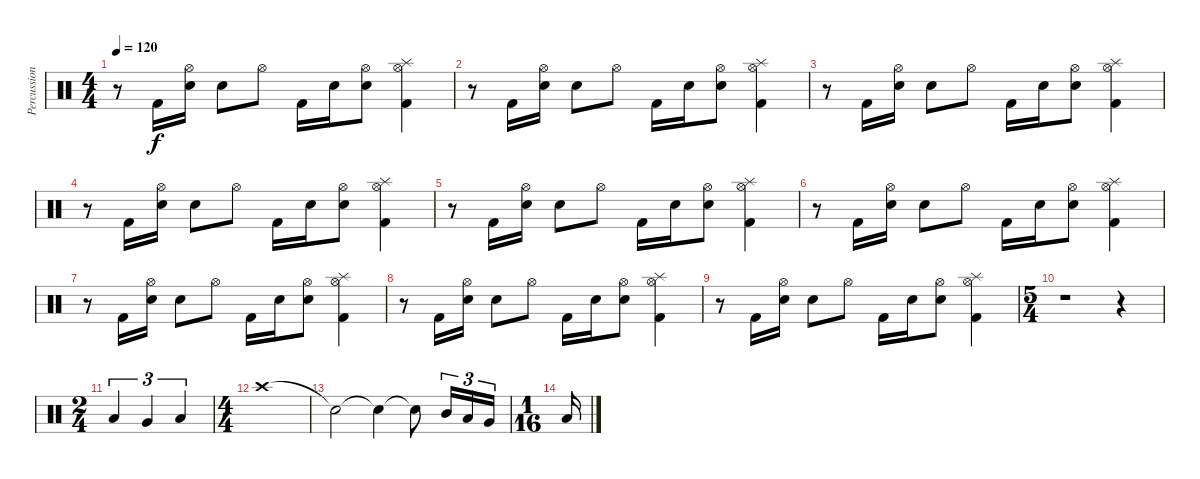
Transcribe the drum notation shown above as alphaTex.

\track ("Percussion" "Percussion") {instrument percussion}
\staff {score}
\articulation defaults
\ts (4 4)
\tempo 120
\clef neutral
\ks c
r.8{dy f} "Kick (hit) 2".16 ("Hi-Hat (open)" "Snare (hit) 2").16 "Snare (hit) 2".8 "Hi-Hat (open)".8 "Kick (hit) 2".16 "Snare (hit) 2".16 ("Hi-Hat (open)" "Snare (hit) 2").8 ("Splash (hit)" "Hi-Hat (open)" "Kick (hit) 2").4 |
r.8 "Kick (hit) 2".16 ("Hi-Hat (open)" "Snare (hit) 2").16 "Snare (hit) 2".8 "Hi-Hat (open)".8 "Kick (hit) 2".16 "Snare (hit) 2".16 ("Hi-Hat (open)" "Snare (hit) 2").8 ("Splash (hit)" "Hi-Hat (open)" "Kick (hit) 2").4 |
r.8 "Kick (hit) 2".16 ("Hi-Hat (open)" "Snare (hit) 2").16 "Snare (hit) 2".8 "Hi-Hat (open)".8 "Kick (hit) 2".16 "Snare (hit) 2".16 ("Hi-Hat (open)" "Snare (hit) 2").8 ("Splash (hit)" "Hi-Hat (open)" "Kick (hit) 2").4 |
r.8 "Kick (hit) 2".16 ("Hi-Hat (open)" "Snare (hit) 2").16 "Snare (hit) 2".8 "Hi-Hat (open)".8 "Kick (hit) 2".16 "Snare (hit) 2".16 ("Hi-Hat (open)" "Snare (hit) 2").8 ("Splash (hit)" "Hi-Hat (open)" "Kick (hit) 2").4 |
r.8 "Kick (hit) 2".16 ("Hi-Hat (open)" "Snare (hit) 2").16 "Snare (hit) 2".8 "Hi-Hat (open)".8 "Kick (hit) 2".16 "Snare (hit) 2".16 ("Hi-Hat (open)" "Snare (hit) 2").8 ("Splash (hit)" "Hi-Hat (open)" "Kick (hit) 2").4 |
r.8 "Kick (hit) 2".16 ("Hi-Hat (open)" "Snare (hit) 2").16 "Snare (hit) 2".8 "Hi-Hat (open)".8 "Kick (hit) 2".16 "Snare (hit) 2".16 ("Hi-Hat (open)" "Snare (hit) 2").8 ("Splash (hit)" "Hi-Hat (open)" "Kick (hit) 2").4 |
r.8 "Kick (hit) 2".16 ("Hi-Hat (open)" "Snare (hit) 2").16 "Snare (hit) 2".8 "Hi-Hat (open)".8 "Kick (hit) 2".16 "Snare (hit) 2".16 ("Hi-Hat (open)" "Snare (hit) 2").8 ("Splash (hit)" "Hi-Hat (open)" "Kick (hit) 2").4 |
r.8 "Kick (hit) 2".16 ("Hi-Hat (open)" "Snare (hit) 2").16 "Snare (hit) 2".8 "Hi-Hat (open)".8 "Kick (hit) 2".16 "Snare (hit) 2".16 ("Hi-Hat (open)" "Snare (hit) 2").8 ("Splash (hit)" "Hi-Hat (open)" "Kick (hit) 2").4 |
r.8 "Kick (hit) 2".16 ("Hi-Hat (open)" "Snare (hit) 2").16 "Snare (hit) 2".8 "Hi-Hat (open)".8 "Kick (hit) 2".16 "Snare (hit) 2".16 ("Hi-Hat (open)" "Snare (hit) 2").8 ("Splash (hit)" "Hi-Hat (open)" "Kick (hit) 2").4 |
\ts (5 4)
r.1 r.4 |
\ts (2 4)
"Low Tom (hit)".4{tu (3 2)} "Very Low Tom (hit)".4{tu (3 2)} "Low Floor Tom (hit)".4{tu (3 2)} |
\ts (4 4)
"Crash high (hit)".1 |
"Snare (hit)"{t}.2 "Snare (hit)"{t}.4 "Snare (hit)"{t}.8 "Mid Tom (hit)".16{tu (3 2)} "Low Tom (hit)".16{tu (3 2)} "Very Low Tom (hit)".16{tu (3 2)} |
\ts (1 16)
"Low Floor Tom (hit)".16
